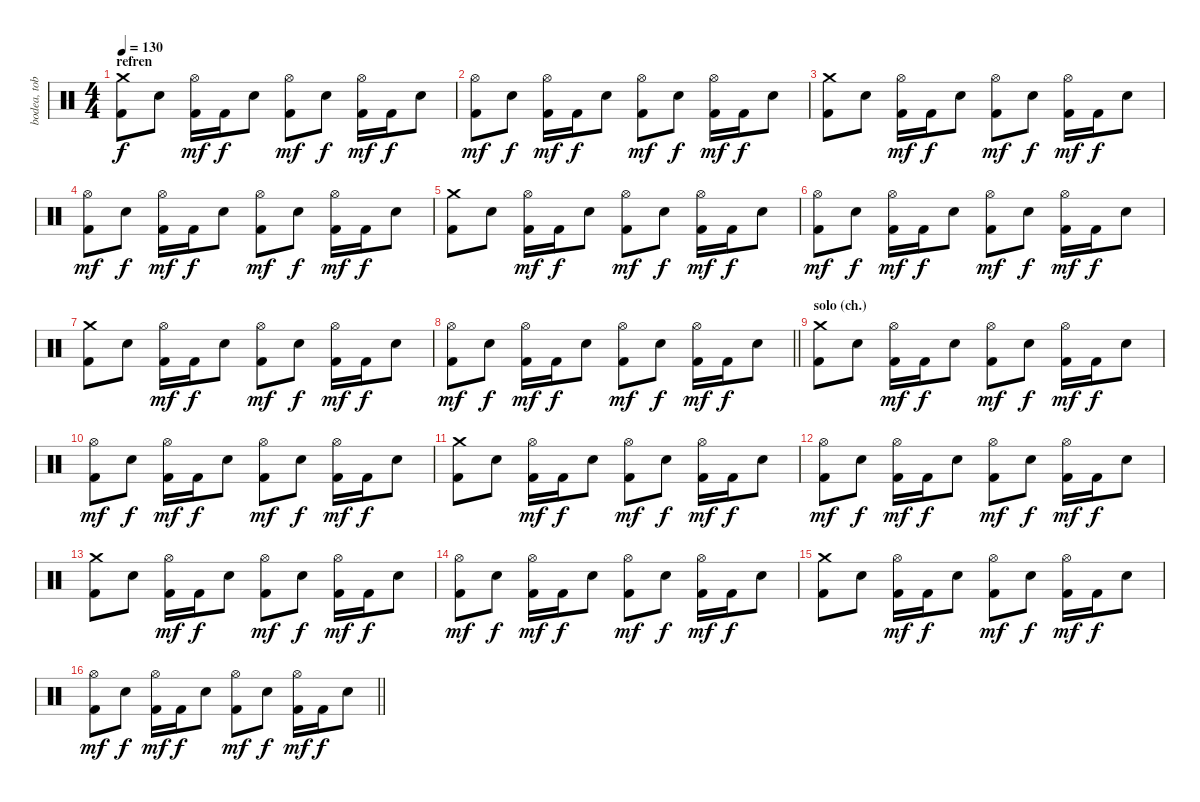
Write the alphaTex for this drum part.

\track ("bodea, tobe" "bodea, tob") {instrument percussion}
\staff {score}
\articulation defaults
\ts (4 4)
\section ("" "refren")
\tempo 130
\clef neutral
\ks c
("Crash medium (hit)" "Kick (hit) 2").8{dy f} "Electric Snare (hit)".8 ("Hi-Hat (open)" "Kick (hit) 2").16{dy mf} "Kick (hit) 2".16{dy f} "Electric Snare (hit)".8 ("Hi-Hat (open)" "Kick (hit) 2").8{dy mf} "Electric Snare (hit)".8{dy f} ("Hi-Hat (open)" "Kick (hit) 2").16{dy mf} "Kick (hit) 2".16{dy f} "Electric Snare (hit)".8 |
("Hi-Hat (open)" "Kick (hit) 2").8{dy mf} "Electric Snare (hit)".8{dy f} ("Hi-Hat (open)" "Kick (hit) 2").16{dy mf} "Kick (hit) 2".16{dy f} "Electric Snare (hit)".8 ("Hi-Hat (open)" "Kick (hit) 2").8{dy mf} "Electric Snare (hit)".8{dy f} ("Hi-Hat (open)" "Kick (hit) 2").16{dy mf} "Kick (hit) 2".16{dy f} "Electric Snare (hit)".8 |
("Crash medium (hit)" "Kick (hit) 2").8 "Electric Snare (hit)".8 ("Hi-Hat (open)" "Kick (hit) 2").16{dy mf} "Kick (hit) 2".16{dy f} "Electric Snare (hit)".8 ("Hi-Hat (open)" "Kick (hit) 2").8{dy mf} "Electric Snare (hit)".8{dy f} ("Hi-Hat (open)" "Kick (hit) 2").16{dy mf} "Kick (hit) 2".16{dy f} "Electric Snare (hit)".8 |
("Hi-Hat (open)" "Kick (hit) 2").8{dy mf} "Electric Snare (hit)".8{dy f} ("Hi-Hat (open)" "Kick (hit) 2").16{dy mf} "Kick (hit) 2".16{dy f} "Electric Snare (hit)".8 ("Hi-Hat (open)" "Kick (hit) 2").8{dy mf} "Electric Snare (hit)".8{dy f} ("Hi-Hat (open)" "Kick (hit) 2").16{dy mf} "Kick (hit) 2".16{dy f} "Electric Snare (hit)".8 |
("Crash medium (hit)" "Kick (hit) 2").8 "Electric Snare (hit)".8 ("Hi-Hat (open)" "Kick (hit) 2").16{dy mf} "Kick (hit) 2".16{dy f} "Electric Snare (hit)".8 ("Hi-Hat (open)" "Kick (hit) 2").8{dy mf} "Electric Snare (hit)".8{dy f} ("Hi-Hat (open)" "Kick (hit) 2").16{dy mf} "Kick (hit) 2".16{dy f} "Electric Snare (hit)".8 |
("Hi-Hat (open)" "Kick (hit) 2").8{dy mf} "Electric Snare (hit)".8{dy f} ("Hi-Hat (open)" "Kick (hit) 2").16{dy mf} "Kick (hit) 2".16{dy f} "Electric Snare (hit)".8 ("Hi-Hat (open)" "Kick (hit) 2").8{dy mf} "Electric Snare (hit)".8{dy f} ("Hi-Hat (open)" "Kick (hit) 2").16{dy mf} "Kick (hit) 2".16{dy f} "Electric Snare (hit)".8 |
("Crash medium (hit)" "Kick (hit) 2").8 "Electric Snare (hit)".8 ("Hi-Hat (open)" "Kick (hit) 2").16{dy mf} "Kick (hit) 2".16{dy f} "Electric Snare (hit)".8 ("Hi-Hat (open)" "Kick (hit) 2").8{dy mf} "Electric Snare (hit)".8{dy f} ("Hi-Hat (open)" "Kick (hit) 2").16{dy mf} "Kick (hit) 2".16{dy f} "Electric Snare (hit)".8 |
\barLineRight lightlight
("Hi-Hat (open)" "Kick (hit) 2").8{dy mf} "Electric Snare (hit)".8{dy f} ("Hi-Hat (open)" "Kick (hit) 2").16{dy mf} "Kick (hit) 2".16{dy f} "Electric Snare (hit)".8 ("Hi-Hat (open)" "Kick (hit) 2").8{dy mf} "Electric Snare (hit)".8{dy f} ("Hi-Hat (open)" "Kick (hit) 2").16{dy mf} "Kick (hit) 2".16{dy f} "Electric Snare (hit)".8 |
\section ("" "solo (ch.)")
("Crash medium (hit)" "Kick (hit) 2").8 "Electric Snare (hit)".8 ("Hi-Hat (open)" "Kick (hit) 2").16{dy mf} "Kick (hit) 2".16{dy f} "Electric Snare (hit)".8 ("Hi-Hat (open)" "Kick (hit) 2").8{dy mf} "Electric Snare (hit)".8{dy f} ("Hi-Hat (open)" "Kick (hit) 2").16{dy mf} "Kick (hit) 2".16{dy f} "Electric Snare (hit)".8 |
("Hi-Hat (open)" "Kick (hit) 2").8{dy mf} "Electric Snare (hit)".8{dy f} ("Hi-Hat (open)" "Kick (hit) 2").16{dy mf} "Kick (hit) 2".16{dy f} "Electric Snare (hit)".8 ("Hi-Hat (open)" "Kick (hit) 2").8{dy mf} "Electric Snare (hit)".8{dy f} ("Hi-Hat (open)" "Kick (hit) 2").16{dy mf} "Kick (hit) 2".16{dy f} "Electric Snare (hit)".8 |
("Crash medium (hit)" "Kick (hit) 2").8 "Electric Snare (hit)".8 ("Hi-Hat (open)" "Kick (hit) 2").16{dy mf} "Kick (hit) 2".16{dy f} "Electric Snare (hit)".8 ("Hi-Hat (open)" "Kick (hit) 2").8{dy mf} "Electric Snare (hit)".8{dy f} ("Hi-Hat (open)" "Kick (hit) 2").16{dy mf} "Kick (hit) 2".16{dy f} "Electric Snare (hit)".8 |
("Hi-Hat (open)" "Kick (hit) 2").8{dy mf} "Electric Snare (hit)".8{dy f} ("Hi-Hat (open)" "Kick (hit) 2").16{dy mf} "Kick (hit) 2".16{dy f} "Electric Snare (hit)".8 ("Hi-Hat (open)" "Kick (hit) 2").8{dy mf} "Electric Snare (hit)".8{dy f} ("Hi-Hat (open)" "Kick (hit) 2").16{dy mf} "Kick (hit) 2".16{dy f} "Electric Snare (hit)".8 |
("Crash medium (hit)" "Kick (hit) 2").8 "Electric Snare (hit)".8 ("Hi-Hat (open)" "Kick (hit) 2").16{dy mf} "Kick (hit) 2".16{dy f} "Electric Snare (hit)".8 ("Hi-Hat (open)" "Kick (hit) 2").8{dy mf} "Electric Snare (hit)".8{dy f} ("Hi-Hat (open)" "Kick (hit) 2").16{dy mf} "Kick (hit) 2".16{dy f} "Electric Snare (hit)".8 |
("Hi-Hat (open)" "Kick (hit) 2").8{dy mf} "Electric Snare (hit)".8{dy f} ("Hi-Hat (open)" "Kick (hit) 2").16{dy mf} "Kick (hit) 2".16{dy f} "Electric Snare (hit)".8 ("Hi-Hat (open)" "Kick (hit) 2").8{dy mf} "Electric Snare (hit)".8{dy f} ("Hi-Hat (open)" "Kick (hit) 2").16{dy mf} "Kick (hit) 2".16{dy f} "Electric Snare (hit)".8 |
("Crash medium (hit)" "Kick (hit) 2").8 "Electric Snare (hit)".8 ("Hi-Hat (open)" "Kick (hit) 2").16{dy mf} "Kick (hit) 2".16{dy f} "Electric Snare (hit)".8 ("Hi-Hat (open)" "Kick (hit) 2").8{dy mf} "Electric Snare (hit)".8{dy f} ("Hi-Hat (open)" "Kick (hit) 2").16{dy mf} "Kick (hit) 2".16{dy f} "Electric Snare (hit)".8 |
\barLineRight lightlight
("Hi-Hat (open)" "Kick (hit) 2").8{dy mf} "Electric Snare (hit)".8{dy f} ("Hi-Hat (open)" "Kick (hit) 2").16{dy mf} "Kick (hit) 2".16{dy f} "Electric Snare (hit)".8 ("Hi-Hat (open)" "Kick (hit) 2").8{dy mf} "Electric Snare (hit)".8{dy f} ("Hi-Hat (open)" "Kick (hit) 2").16{dy mf} "Kick (hit) 2".16{dy f} "Electric Snare (hit)".8
